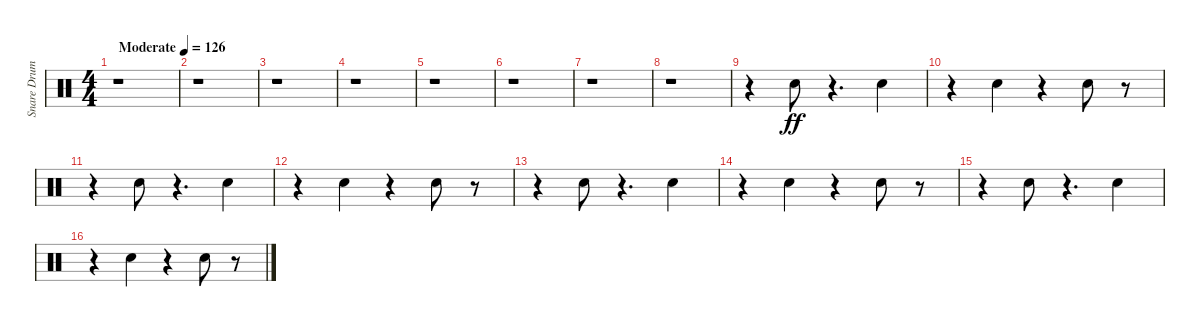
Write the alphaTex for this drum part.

\track ("Snare Drum" "Snare Drum") {instrument percussion}
\staff {score}
\articulation defaults
\ts (4 4)
\tempo (126 "Moderate")
\clef neutral
\ks c
r.1{dy ff} |
r.1 |
r.1 |
r.1 |
r.1 |
r.1 |
r.1 |
r.1 |
r.4 "Electric Snare (hit)".8 r.4{d} "Electric Snare (hit)".4 |
r.4 "Electric Snare (hit)".4 r.4 "Electric Snare (hit)".8 r.8 |
r.4 "Electric Snare (hit)".8 r.4{d} "Electric Snare (hit)".4 |
r.4 "Electric Snare (hit)".4 r.4 "Electric Snare (hit)".8 r.8 |
r.4 "Electric Snare (hit)".8 r.4{d} "Electric Snare (hit)".4 |
r.4 "Electric Snare (hit)".4 r.4 "Electric Snare (hit)".8 r.8 |
r.4 "Electric Snare (hit)".8 r.4{d} "Electric Snare (hit)".4 |
r.4 "Electric Snare (hit)".4 r.4 "Electric Snare (hit)".8 r.8
